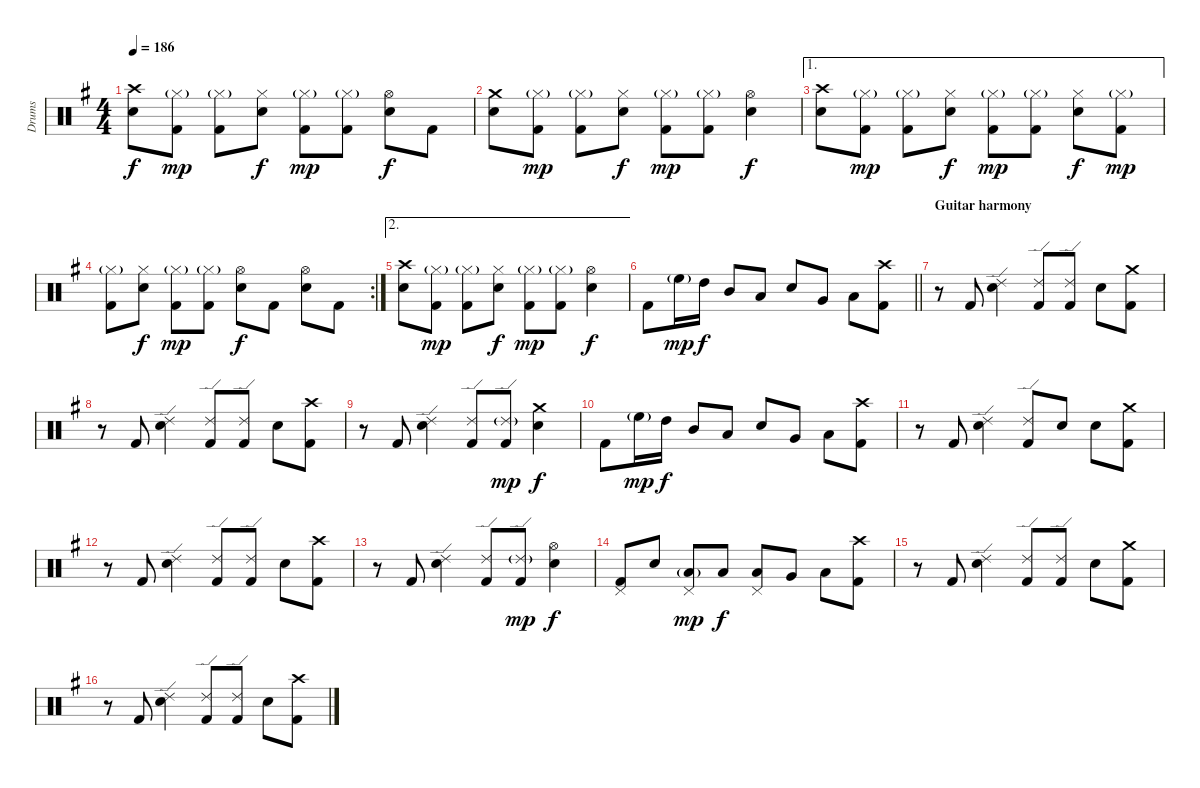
\track ("Drums" "Drums") {instrument percussion}
\staff {score}
\articulation defaults
\ts (4 4)
\tempo 186
\clef neutral
\ks g
("Crash high (hit)" "Snare (hit) 2").8{dy f} ("Hi-Hat (closed)"{g} "Kick (hit) 2").8{dy mp} ("Hi-Hat (closed)"{g} "Kick (hit) 2").8 ("Hi-Hat (closed)" "Snare (hit) 2").8{dy f} ("Hi-Hat (closed)"{g} "Kick (hit) 2").8{dy mp} ("Hi-Hat (closed)"{g} "Kick (hit) 2").8 ("Hi-Hat (open)" "Snare (hit) 2").8{dy f} "Kick (hit) 2".8 |
("Crash medium (hit)" "Snare (hit) 2").8 ("Hi-Hat (closed)"{g} "Kick (hit) 2").8{dy mp} ("Hi-Hat (closed)"{g} "Kick (hit) 2").8 ("Hi-Hat (closed)" "Snare (hit) 2").8{dy f} ("Hi-Hat (closed)"{g} "Kick (hit) 2").8{dy mp} ("Hi-Hat (closed)"{g} "Kick (hit) 2").8 ("Hi-Hat (open)" "Snare (hit) 2").4{dy f} |
\ae 1
("Crash high (hit)" "Snare (hit) 2").8 ("Hi-Hat (closed)"{g} "Kick (hit) 2").8{dy mp} ("Hi-Hat (closed)"{g} "Kick (hit) 2").8 ("Hi-Hat (closed)" "Snare (hit) 2").8{dy f} ("Hi-Hat (closed)"{g} "Kick (hit) 2").8{dy mp} ("Hi-Hat (closed)"{g} "Kick (hit) 2").8 ("Hi-Hat (closed)" "Snare (hit) 2").8{dy f} ("Hi-Hat (closed)"{g} "Kick (hit) 2").8{dy mp} |
\rc 2
("Hi-Hat (closed)"{g} "Kick (hit) 2").8 ("Hi-Hat (closed)" "Snare (hit) 2").8{dy f} ("Hi-Hat (closed)"{g} "Kick (hit) 2").8{dy mp} ("Hi-Hat (closed)"{g} "Kick (hit) 2").8 ("Hi-Hat (open)" "Snare (hit) 2").8{dy f} "Kick (hit) 2".8 ("Hi-Hat (open)" "Snare (hit) 2").8 "Kick (hit) 2".8 |
\ae 2
("Crash high (hit)" "Snare (hit) 2").8 ("Hi-Hat (closed)"{g} "Kick (hit) 2").8{dy mp} ("Hi-Hat (closed)"{g} "Kick (hit) 2").8 ("Hi-Hat (closed)" "Snare (hit) 2").8{dy f} ("Hi-Hat (closed)"{g} "Kick (hit) 2").8{dy mp} ("Hi-Hat (closed)"{g} "Kick (hit) 2").8 ("Hi-Hat (open)" "Snare (hit) 2").4{dy f} |
\barLineRight lightlight "Kick (hit) 2".8 "High Floor Tom (hit)"{g}.16{dy mp} "High Tom (hit)".16{dy f} "Mid Tom (hit)".8 "Low Tom (hit)".8 "Snare (hit) 2".8 "Very Low Tom (hit)".8 "Low Floor Tom (hit)".8
("Crash high (hit)" "Kick (hit) 2").8 |
\section ("" "Guitar harmony")
r.8 "Kick (hit) 2".8 ("Ride (edge) 2" "Snare (hit) 2").4 ("Ride (edge) 2" "Kick (hit) 2").8 ("Ride (edge) 2" "Kick (hit) 2").8 "Snare (hit) 2".8 ("Crash medium (hit)" "Kick (hit) 2").8 |
r.8 "Kick (hit) 2".8 ("Ride (edge) 2" "Snare (hit) 2").4 ("Ride (edge) 2" "Kick (hit) 2").8 ("Ride (edge) 2" "Kick (hit) 2").8 "Snare (hit) 2".8 ("Crash high (hit)" "Kick (hit) 2").8 |
r.8 "Kick (hit) 2".8 ("Ride (edge) 2" "Snare (hit) 2").4 ("Ride (edge) 2" "Kick (hit) 2").8 ("Ride (edge) 2"{g} "Kick (hit) 2").8{dy mp} ("Crash medium (hit)" "Snare (hit) 2").4{dy f} |
"Kick (hit) 2".8 "High Floor Tom (hit)"{g}.16{dy mp} "High Tom (hit)".16{dy f} "Mid Tom (hit)".8 "Low Tom (hit)".8 "Snare (hit) 2".8 "Very Low Tom (hit)".8 "Low Floor Tom (hit)".8 ("Crash high (hit)" "Kick (hit) 2").8 |
r.8 "Kick (hit) 2".8 ("Ride (edge) 2" "Snare (hit) 2").4 ("Ride (edge) 2" "Kick (hit) 2").8 "Snare (hit) 2".8 "Snare (hit) 2".8 ("Crash medium (hit)" "Kick (hit) 2").8 |
r.8 "Kick (hit) 2".8 ("Ride (edge) 2" "Snare (hit) 2").4 ("Ride (edge) 2" "Kick (hit) 2").8 ("Ride (edge) 2" "Kick (hit) 2").8 "Snare (hit) 2".8 ("Crash high (hit)" "Kick (hit) 2").8 |
r.8 "Kick (hit) 2".8 ("Ride (edge) 2" "Snare (hit) 2").4 ("Ride (edge) 2" "Kick (hit) 2").8 ("Ride (edge) 2"{g} "Kick (hit) 2").8{dy mp} ("Hi-Hat (open)" "Snare (hit) 2").4{dy f} |
("Pedal Hi-Hat (hit)" "Kick (hit) 2").8 "Snare (hit) 2".8 ("Pedal Hi-Hat (hit)" "Low Floor Tom (hit)"{g}).8{dy mp} "Low Floor Tom (hit)".8{dy f} ("Pedal Hi-Hat (hit)" "Low Tom (hit)").8 "Very Low Tom (hit)".8 "Low Floor Tom (hit)".8 ("Crash high (hit)" "Kick (hit) 2").8 |
r.8 "Kick (hit) 2".8 ("Ride (edge) 2" "Snare (hit) 2").4 ("Ride (edge) 2" "Kick (hit) 2").8 ("Ride (edge) 2" "Kick (hit) 2").8 "Snare (hit) 2".8 ("Crash medium (hit)" "Kick (hit) 2").8 |
r.8 "Kick (hit) 2".8 ("Ride (edge) 2" "Snare (hit) 2").4 ("Ride (edge) 2" "Kick (hit) 2").8 ("Ride (edge) 2" "Kick (hit) 2").8 "Snare (hit) 2".8 ("Crash high (hit)" "Kick (hit) 2").8
